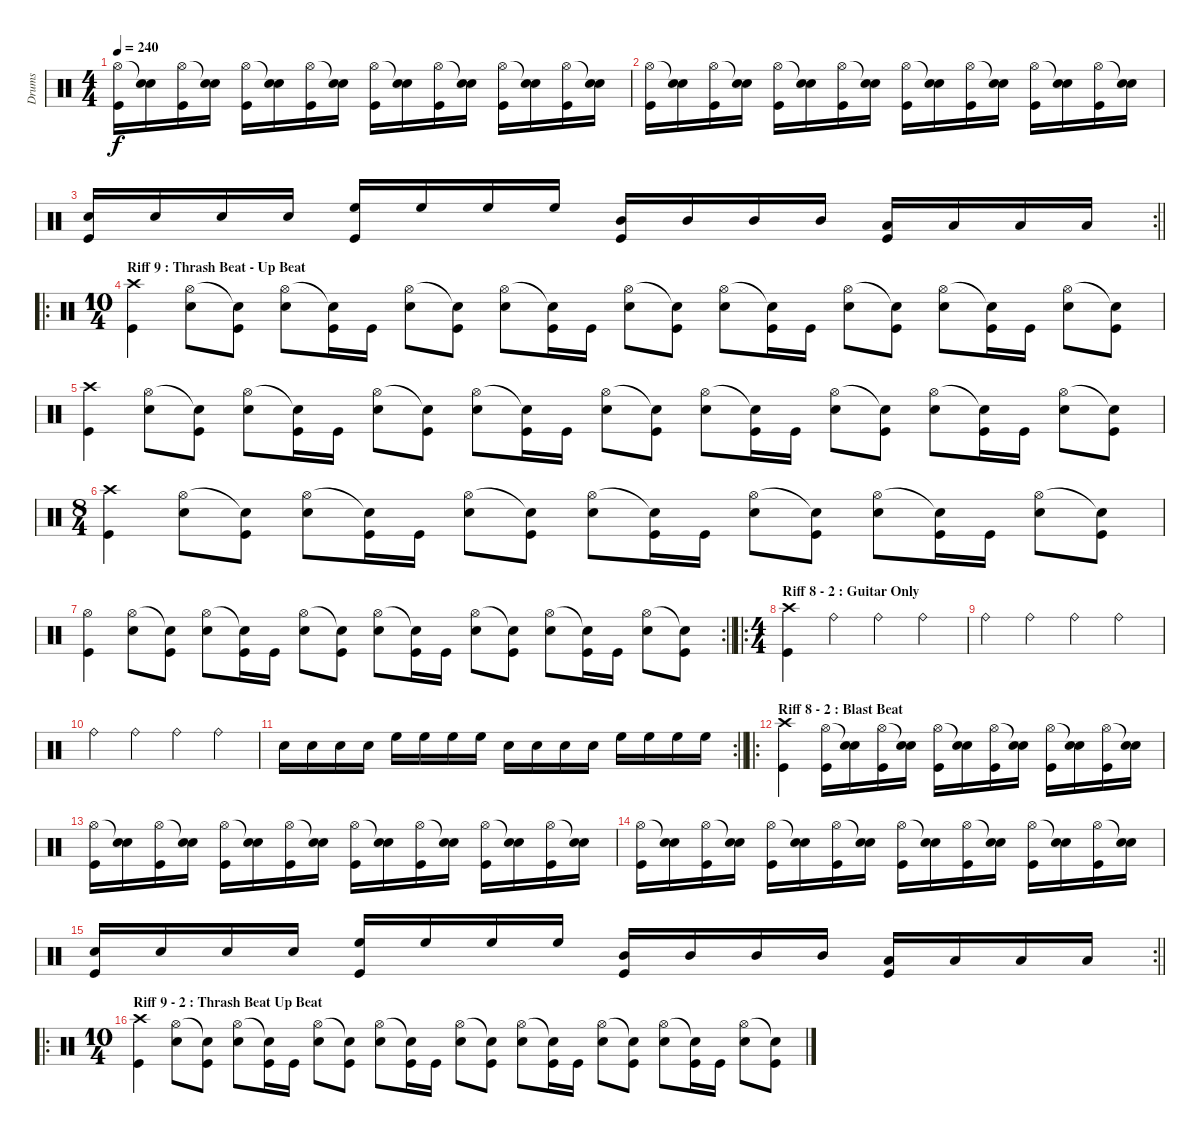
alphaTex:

\track ("Drums " "Drums ") {instrument percussion}
\staff {score}
\articulation defaults
\ts (4 4)
\tempo 240
\clef neutral
\ks c
("Hi-Hat (open)" "Kick (hit)").16{dy f} ("Snare (hit)"{t} "Electric Snare (hit)").16 ("Hi-Hat (open)" "Kick (hit)").16 ("Snare (hit)"{t} "Electric Snare (hit)").16 ("Hi-Hat (open)" "Kick (hit)").16 ("Snare (hit)"{t} "Electric Snare (hit)").16 ("Hi-Hat (open)" "Kick (hit)").16 ("Snare (hit)"{t} "Electric Snare (hit)").16 ("Hi-Hat (open)" "Kick (hit)").16 ("Snare (hit)"{t} "Electric Snare (hit)").16 ("Hi-Hat (open)" "Kick (hit)").16 ("Snare (hit)"{t} "Electric Snare (hit)").16 ("Hi-Hat (open)" "Kick (hit)").16 ("Snare (hit)"{t} "Electric Snare (hit)").16 ("Hi-Hat (open)" "Kick (hit)").16 ("Snare (hit)"{t} "Electric Snare (hit)").16 |
("Hi-Hat (open)" "Kick (hit)").16 ("Snare (hit)"{t} "Electric Snare (hit)").16 ("Hi-Hat (open)" "Kick (hit)").16 ("Snare (hit)"{t} "Electric Snare (hit)").16 ("Hi-Hat (open)" "Kick (hit)").16 ("Snare (hit)"{t} "Electric Snare (hit)").16 ("Hi-Hat (open)" "Kick (hit)").16 ("Snare (hit)"{t} "Electric Snare (hit)").16 ("Hi-Hat (open)" "Kick (hit)").16 ("Snare (hit)"{t} "Electric Snare (hit)").16 ("Hi-Hat (open)" "Kick (hit)").16 ("Snare (hit)"{t} "Electric Snare (hit)").16 ("Hi-Hat (open)" "Kick (hit)").16 ("Snare (hit)"{t} "Electric Snare (hit)").16 ("Hi-Hat (open)" "Kick (hit)").16 ("Snare (hit)"{t} "Electric Snare (hit)").16 |
\rc 2
\barLineRight lightlight
("Electric Snare (hit)" "Kick (hit)").16 "Electric Snare (hit)".16 "Electric Snare (hit)".16 "Electric Snare (hit)".16 ("High Floor Tom (hit)" "Kick (hit)").16 "High Floor Tom (hit)".16 "High Floor Tom (hit)".16 "High Floor Tom (hit)".16 ("Mid Tom (hit)" "Kick (hit)").16 "Mid Tom (hit)".16 "Mid Tom (hit)".16 "Mid Tom (hit)".16 ("Low Tom (hit)" "Kick (hit)").16 "Low Tom (hit)".16 "Low Tom (hit)".16 "Low Tom (hit)".16 |
\ro
\ts (10 4)
\section ("" "Riff 9 : Thrash Beat - Up Beat")
("Crash high (hit)" "Kick (hit)").4 ("Hi-Hat (open)" "Electric Snare (hit)").8 ("Snare (hit)"{t} "Kick (hit)").8 ("Hi-Hat (open)" "Electric Snare (hit)").8 ("Snare (hit)"{t} "Kick (hit)").16 "Kick (hit)".16 ("Hi-Hat (open)" "Electric Snare (hit)").8 ("Snare (hit)"{t} "Kick (hit)").8 ("Hi-Hat (open)" "Electric Snare (hit)").8 ("Snare (hit)"{t} "Kick (hit)").16 "Kick (hit)".16 ("Hi-Hat (open)" "Electric Snare (hit)").8 ("Snare (hit)"{t} "Kick (hit)").8 ("Hi-Hat (open)" "Electric Snare (hit)").8 ("Snare (hit)"{t} "Kick (hit)").16 "Kick (hit)".16 ("Hi-Hat (open)" "Electric Snare (hit)").8 ("Snare (hit)"{t} "Kick (hit)").8 ("Hi-Hat (open)" "Electric Snare (hit)").8 ("Snare (hit)"{t} "Kick (hit)").16 "Kick (hit)".16 ("Hi-Hat (open)" "Electric Snare (hit)").8 ("Snare (hit)"{t} "Kick (hit)").8 |
("Crash high (hit)" "Kick (hit)").4 ("Hi-Hat (open)" "Electric Snare (hit)").8 ("Snare (hit)"{t} "Kick (hit)").8 ("Hi-Hat (open)" "Electric Snare (hit)").8 ("Snare (hit)"{t} "Kick (hit)").16 "Kick (hit)".16 ("Hi-Hat (open)" "Electric Snare (hit)").8 ("Snare (hit)"{t} "Kick (hit)").8 ("Hi-Hat (open)" "Electric Snare (hit)").8 ("Snare (hit)"{t} "Kick (hit)").16 "Kick (hit)".16 ("Hi-Hat (open)" "Electric Snare (hit)").8 ("Snare (hit)"{t} "Kick (hit)").8 ("Hi-Hat (open)" "Electric Snare (hit)").8 ("Snare (hit)"{t} "Kick (hit)").16 "Kick (hit)".16 ("Hi-Hat (open)" "Electric Snare (hit)").8 ("Snare (hit)"{t} "Kick (hit)").8 ("Hi-Hat (open)" "Electric Snare (hit)").8 ("Snare (hit)"{t} "Kick (hit)").16 "Kick (hit)".16 ("Hi-Hat (open)" "Electric Snare (hit)").8 ("Snare (hit)"{t} "Kick (hit)").8 |
\ts (8 4)
("Crash high (hit)" "Kick (hit)").4 ("Hi-Hat (open)" "Electric Snare (hit)").8 ("Snare (hit)"{t} "Kick (hit)").8 ("Hi-Hat (open)" "Electric Snare (hit)").8 ("Snare (hit)"{t} "Kick (hit)").16 "Kick (hit)".16 ("Hi-Hat (open)" "Electric Snare (hit)").8 ("Snare (hit)"{t} "Kick (hit)").8 ("Hi-Hat (open)" "Electric Snare (hit)").8 ("Snare (hit)"{t} "Kick (hit)").16 "Kick (hit)".16 ("Hi-Hat (open)" "Electric Snare (hit)").8 ("Snare (hit)"{t} "Kick (hit)").8 ("Hi-Hat (open)" "Electric Snare (hit)").8 ("Snare (hit)"{t} "Kick (hit)").16 "Kick (hit)".16 ("Hi-Hat (open)" "Electric Snare (hit)").8 ("Snare (hit)"{t} "Kick (hit)").8 |
\rc 2
\barLineRight lightlight
("Hi-Hat (open)" "Kick (hit)").4 ("Hi-Hat (open)" "Electric Snare (hit)").8 ("Snare (hit)"{t} "Kick (hit)").8 ("Hi-Hat (open)" "Electric Snare (hit)").8 ("Snare (hit)"{t} "Kick (hit)").16 "Kick (hit)".16 ("Hi-Hat (open)" "Electric Snare (hit)").8 ("Snare (hit)"{t} "Kick (hit)").8 ("Hi-Hat (open)" "Electric Snare (hit)").8 ("Snare (hit)"{t} "Kick (hit)").16 "Kick (hit)".16 ("Hi-Hat (open)" "Electric Snare (hit)").8 ("Snare (hit)"{t} "Kick (hit)").8 ("Hi-Hat (open)" "Electric Snare (hit)").8 ("Snare (hit)"{t} "Kick (hit)").16 "Kick (hit)".16 ("Hi-Hat (open)" "Electric Snare (hit)").8 ("Snare (hit)"{t} "Kick (hit)").8 |
\ro
\ts (4 4)
\section ("" "Riff 8 - 2 : Guitar Only")
("Crash high (hit)" "Kick (hit)").4 "Ride (bell)".4 "Ride (bell)".4 "Ride (bell)".4 |
"Ride (bell)".4 "Ride (bell)".4 "Ride (bell)".4 "Ride (bell)".4 |
"Ride (bell)".4 "Ride (bell)".4 "Ride (bell)".4 "Ride (bell)".4 |
\rc 2
\barLineRight lightlight "Electric Snare (hit)".16 "Electric Snare (hit)".16 "Electric Snare (hit)".16 "Electric Snare (hit)".16 "High Floor Tom (hit)".16 "High Floor Tom (hit)".16 "High Floor Tom (hit)".16 "High Floor Tom (hit)".16 "Electric Snare (hit)".16 "Electric Snare (hit)".16 "Electric Snare (hit)".16 "Electric Snare (hit)".16 "High Floor Tom (hit)".16 "High Floor Tom (hit)".16 "High Floor Tom (hit)".16 "High Floor Tom (hit)".16
|
\ro
\section ("" "Riff 8 - 2 : Blast Beat")
("Crash high (hit)" "Kick (hit)").4 ("Hi-Hat (open)" "Kick (hit)").16 ("Snare (hit)"{t} "Electric Snare (hit)").16 ("Hi-Hat (open)" "Kick (hit)").16 ("Snare (hit)"{t} "Electric Snare (hit)").16 ("Hi-Hat (open)" "Kick (hit)").16 ("Snare (hit)"{t} "Electric Snare (hit)").16 ("Hi-Hat (open)" "Kick (hit)").16 ("Snare (hit)"{t} "Electric Snare (hit)").16 ("Hi-Hat (open)" "Kick (hit)").16 ("Snare (hit)"{t} "Electric Snare (hit)").16 ("Hi-Hat (open)" "Kick (hit)").16 ("Snare (hit)"{t} "Electric Snare (hit)").16 |
("Hi-Hat (open)" "Kick (hit)").16 ("Snare (hit)"{t} "Electric Snare (hit)").16 ("Hi-Hat (open)" "Kick (hit)").16 ("Snare (hit)"{t} "Electric Snare (hit)").16 ("Hi-Hat (open)" "Kick (hit)").16 ("Snare (hit)"{t} "Electric Snare (hit)").16 ("Hi-Hat (open)" "Kick (hit)").16 ("Snare (hit)"{t} "Electric Snare (hit)").16 ("Hi-Hat (open)" "Kick (hit)").16 ("Snare (hit)"{t} "Electric Snare (hit)").16 ("Hi-Hat (open)" "Kick (hit)").16 ("Snare (hit)"{t} "Electric Snare (hit)").16 ("Hi-Hat (open)" "Kick (hit)").16 ("Snare (hit)"{t} "Electric Snare (hit)").16 ("Hi-Hat (open)" "Kick (hit)").16 ("Snare (hit)"{t} "Electric Snare (hit)").16 |
("Hi-Hat (open)" "Kick (hit)").16 ("Snare (hit)"{t} "Electric Snare (hit)").16 ("Hi-Hat (open)" "Kick (hit)").16 ("Snare (hit)"{t} "Electric Snare (hit)").16 ("Hi-Hat (open)" "Kick (hit)").16 ("Snare (hit)"{t} "Electric Snare (hit)").16 ("Hi-Hat (open)" "Kick (hit)").16 ("Snare (hit)"{t} "Electric Snare (hit)").16 ("Hi-Hat (open)" "Kick (hit)").16 ("Snare (hit)"{t} "Electric Snare (hit)").16 ("Hi-Hat (open)" "Kick (hit)").16 ("Snare (hit)"{t} "Electric Snare (hit)").16 ("Hi-Hat (open)" "Kick (hit)").16 ("Snare (hit)"{t} "Electric Snare (hit)").16 ("Hi-Hat (open)" "Kick (hit)").16 ("Snare (hit)"{t} "Electric Snare (hit)").16 |
\rc 2
\barLineRight lightlight
("Electric Snare (hit)" "Kick (hit)").16 "Electric Snare (hit)".16 "Electric Snare (hit)".16 "Electric Snare (hit)".16 ("High Floor Tom (hit)" "Kick (hit)").16 "High Floor Tom (hit)".16 "High Floor Tom (hit)".16 "High Floor Tom (hit)".16 ("Mid Tom (hit)" "Kick (hit)").16 "Mid Tom (hit)".16 "Mid Tom (hit)".16 "Mid Tom (hit)".16 ("Low Tom (hit)" "Kick (hit)").16 "Low Tom (hit)".16 "Low Tom (hit)".16 "Low Tom (hit)".16 |
\ro
\ts (10 4)
\section ("" "Riff 9 - 2 : Thrash Beat Up Beat")
("Crash high (hit)" "Kick (hit)").4 ("Hi-Hat (open)" "Electric Snare (hit)").8 ("Snare (hit)"{t} "Kick (hit)").8 ("Hi-Hat (open)" "Electric Snare (hit)").8 ("Snare (hit)"{t} "Kick (hit)").16 "Kick (hit)".16 ("Hi-Hat (open)" "Electric Snare (hit)").8 ("Snare (hit)"{t} "Kick (hit)").8 ("Hi-Hat (open)" "Electric Snare (hit)").8 ("Snare (hit)"{t} "Kick (hit)").16 "Kick (hit)".16 ("Hi-Hat (open)" "Electric Snare (hit)").8 ("Snare (hit)"{t} "Kick (hit)").8 ("Hi-Hat (open)" "Electric Snare (hit)").8 ("Snare (hit)"{t} "Kick (hit)").16 "Kick (hit)".16 ("Hi-Hat (open)" "Electric Snare (hit)").8 ("Snare (hit)"{t} "Kick (hit)").8 ("Hi-Hat (open)" "Electric Snare (hit)").8 ("Snare (hit)"{t} "Kick (hit)").16 "Kick (hit)".16 ("Hi-Hat (open)" "Electric Snare (hit)").8 ("Snare (hit)"{t} "Kick (hit)").8
